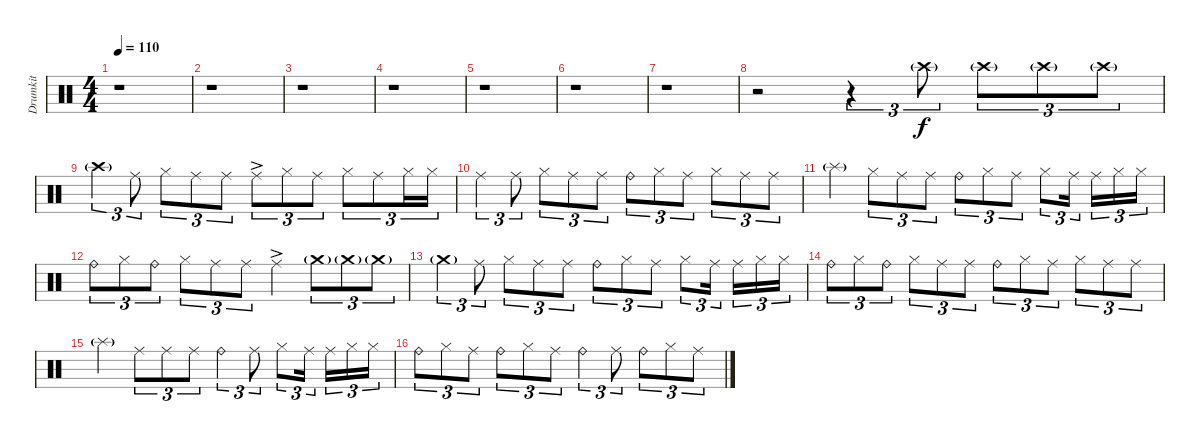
\track ("Drumkit" "Drumkit") {instrument percussion}
\staff {score}
\articulation defaults
\ts (4 4)
\tempo 110
\clef neutral
\ks c
r.1{dy f} |
r.1 |
r.1 |
r.1 |
r.1 |
r.1 |
r.1 |
r.2 r.4{tu (3 2)} "Crash high (hit)"{g}.8{tu (3 2)} "Crash high (hit)"{g}.8{tu (3 2)} "Crash high (hit)"{g}.8{tu (3 2)} "Crash high (hit)"{g}.8{tu (3 2)} |
"Crash high (hit)"{g}.4{tu (3 2)} "Ride (middle)".8{tu (3 2)} "Hi-Hat (closed)".8{tu (3 2)} "Ride (middle)".8{tu (3 2)} "Ride (middle)".8{tu (3 2)} "Ride (middle)"{ac}.8{tu (3 2)} "Hi-Hat (closed)".8{tu (3 2)} "Ride (middle)".8{tu (3 2)} "Hi-Hat (closed)".8{tu (3 2)} "Ride (middle)".8{tu (3 2)} "Hi-Hat (closed)".16{tu (3 2)} "Hi-Hat (closed)".16{tu (3 2)} |
"Ride (middle)".4{tu (3 2)} "Ride (middle)".8{tu (3 2)} "Hi-Hat (closed)".8{tu (3 2)} "Ride (middle)".8{tu (3 2)} "Ride (middle)".8{tu (3 2)} "Ride (bell)".8{tu (3 2)} "Hi-Hat (closed)".8{tu (3 2)} "Ride (middle)".8{tu (3 2)} "Hi-Hat (closed)".8{tu (3 2)} "Ride (middle)".8{tu (3 2)} "Ride (middle)".8{tu (3 2)} |
"Splash (hit)"{g}.4 "Hi-Hat (closed)".8{tu (3 2)} "Ride (middle)".8{tu (3 2)} "Ride (middle)".8{tu (3 2)} "Ride (bell)".8{tu (3 2)} "Hi-Hat (closed)".8{tu (3 2)} "Ride (middle)".8{tu (3 2)} "Hi-Hat (closed)".8{tu (3 2)} "Ride (middle)".16{tu (3 2)} "Ride (middle)".16{tu (3 2)} "Hi-Hat (closed)".16{tu (3 2)} "Hi-Hat (closed)".16{tu (3 2)} |
"Ride (bell)".8{tu (3 2)} "Hi-Hat (closed)".8{tu (3 2)} "Ride (bell)".8{tu (3 2)} "Hi-Hat (closed)".8{tu (3 2)} "Ride (middle)".8{tu (3 2)} "Ride (middle)".8{tu (3 2)} "Ride (middle)"{ac}.4 "Crash medium (hit)"{g}.8{tu (3 2)} "Crash medium (hit)"{g}.8{tu (3 2)} "Crash medium (hit)"{g}.8{tu (3 2)} |
"Crash medium (hit)"{g}.4{tu (3 2)} "Ride (middle)".8{tu (3 2)} "Hi-Hat (closed)".8{tu (3 2)} "Ride (middle)".8{tu (3 2)} "Ride (middle)".8{tu (3 2)} "Ride (bell)".8{tu (3 2)} "Hi-Hat (closed)".8{tu (3 2)} "Ride (middle)".8{tu (3 2)} "Hi-Hat (closed)".8{tu (3 2)} "Ride (middle)".16{tu (3 2)} "Ride (middle)".16{tu (3 2)} "Hi-Hat (closed)".16{tu (3 2)} "Hi-Hat (closed)".16{tu (3 2)} |
"Ride (bell)".8{tu (3 2)} "Hi-Hat (closed)".8{tu (3 2)} "Ride (bell)".8{tu (3 2)} "Hi-Hat (closed)".8{tu (3 2)} "Ride (middle)".8{tu (3 2)} "Ride (middle)".8{tu (3 2)} "Ride (bell)".8{tu (3 2)} "Hi-Hat (closed)".8{tu (3 2)} "Ride (middle)".8{tu (3 2)} "Hi-Hat (closed)".8{tu (3 2)} "Ride (middle)".8{tu (3 2)} "Ride (middle)".8{tu (3 2)} |
"Splash (hit)"{g}.4 "Ride (middle)".8{tu (3 2)} "Ride (middle)".8{tu (3 2)} "Ride (middle)".8{tu (3 2)} "Ride (bell)".4{tu (3 2)} "Ride (middle)".8{tu (3 2)} "Hi-Hat (closed)".8{tu (3 2)} "Ride (middle)".16{tu (3 2)} "Ride (middle)".16{tu (3 2)} "Hi-Hat (closed)".16{tu (3 2)} "Hi-Hat (closed)".16{tu (3 2)} |
"Ride (bell)".8{tu (3 2)} "Hi-Hat (closed)".8{tu (3 2)} "Ride (middle)".8{tu (3 2)} "Ride (bell)".8{tu (3 2)} "Hi-Hat (closed)".8{tu (3 2)} "Ride (middle)".8{tu (3 2)} "Ride (bell)".4{tu (3 2)} "Ride (middle)".8{tu (3 2)} "Ride (bell)".8{tu (3 2)} "Hi-Hat (closed)".8{tu (3 2)} "Ride (middle)".8{tu (3 2)}
